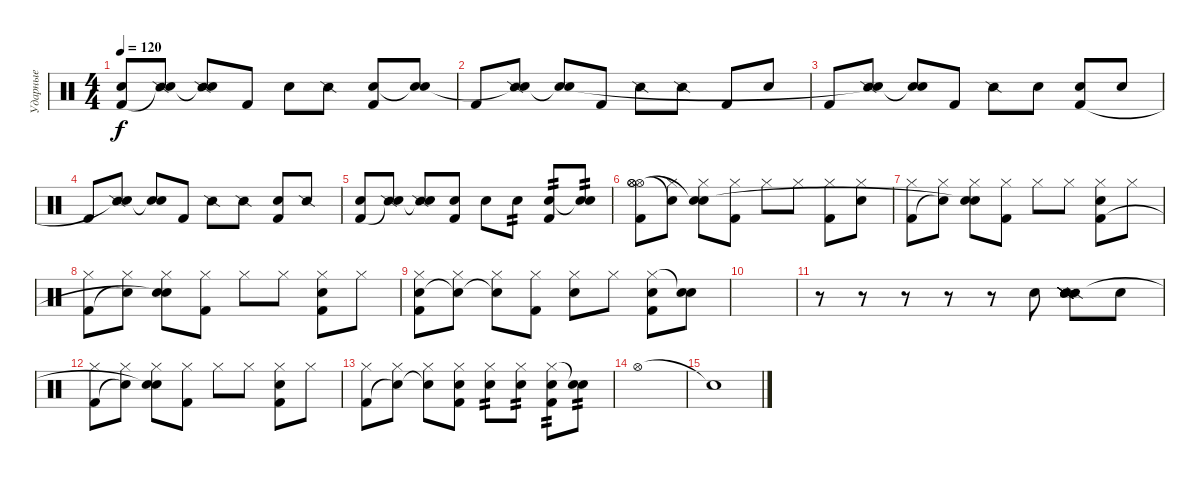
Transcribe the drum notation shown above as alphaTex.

\track ("Ударные" "Ударные") {instrument percussion}
\staff {score}
\articulation defaults
\ts (4 4)
\tempo 120
\clef neutral
\ks c
("Electric Snare (hit)" "Kick (hit) 2").8{dy f} ("Snare (side stick) 2" "Snare (hit)"{t}).8 ("Snare (side stick) 2" "Snare (hit)"{t}).8 "Kick (hit) 2".8 "Electric Snare (hit)".8 "Snare (side stick) 2".8 ("Electric Snare (hit)" "Kick (hit) 2").8 ("Snare (hit)"{t} "Electric Snare (hit)").8 |
"Kick (hit) 2".8 ("Snare (side stick) 2" "Snare (hit)"{t}).8 ("Electric Snare (hit)" "Snare (hit)"{t}).8 "Kick (hit) 2".8 "Snare (side stick) 2".8 "Snare (side stick) 2".8 "Kick (hit) 2".8 "Electric Snare (hit)".8 |
"Kick (hit) 2".8 ("Snare (side stick) 2" "Snare (hit)"{t}).8 ("Electric Snare (hit)" "Snare (hit)"{t}).8 "Kick (hit) 2".8 "Snare (side stick) 2".8 "Electric Snare (hit)".8 ("Electric Snare (hit)" "Kick (hit) 2").8 "Electric Snare (hit)".8 |
"Kick (hit) 2".8 ("Snare (side stick) 2" "Snare (hit)"{t}).8 ("Electric Snare (hit)" "Snare (hit)"{t}).8 "Kick (hit) 2".8 "Snare (side stick) 2".8 "Snare (side stick) 2".8 ("Electric Snare (hit)" "Kick (hit) 2").8 "Snare (side stick) 2".8 |
("Electric Snare (hit)" "Kick (hit) 2").8 ("Snare (side stick) 2" "Snare (hit)"{t}).8 ("Snare (side stick) 2" "Snare (hit)"{t}).8 ("Electric Snare (hit)" "Kick (hit) 2").8 "Electric Snare (hit)".8 "Electric Snare (hit)".8{tp 2} ("Electric Snare (hit)" "Kick (hit) 2").8{tp 2} ("Snare (hit)"{t} "Electric Snare (hit)").8{tp 2} |
("Hi-Hat (open)" "Hi-Hat (open)" "Hi-Hat (open)" "Kick (hit) 2").8 ("Hi-Hat (closed)" "Snare (hit)"{t}).8 ("Hi-Hat (closed)" "Electric Snare (hit)" "Snare (hit)"{t}).8 ("Hi-Hat (closed)" "Kick (hit) 2").8 "Hi-Hat (closed)".8 "Hi-Hat (closed)".8 ("Hi-Hat (closed)" "Kick (hit) 2").8 ("Hi-Hat (closed)" "Electric Snare (hit)").8 |
("Hi-Hat (closed)" "Kick (hit) 2").8 ("Hi-Hat (closed)" "Snare (hit)"{t}).8 ("Hi-Hat (closed)" "Electric Snare (hit)" "Snare (hit)"{t}).8 ("Hi-Hat (closed)" "Kick (hit) 2").8 "Hi-Hat (closed)".8 "Hi-Hat (closed)".8 ("Hi-Hat (closed)" "Electric Snare (hit)" "Kick (hit) 2").8 "Hi-Hat (closed)".8 |
("Hi-Hat (closed)" "Kick (hit) 2").8 ("Hi-Hat (closed)" "Snare (hit)"{t}).8 ("Hi-Hat (closed)" "Electric Snare (hit)" "Snare (hit)"{t}).8 ("Hi-Hat (closed)" "Kick (hit) 2").8 "Hi-Hat (closed)".8 "Hi-Hat (closed)".8 ("Hi-Hat (closed)" "Electric Snare (hit)" "Kick (hit) 2").8 "Hi-Hat (closed)".8 |
("Hi-Hat (closed)" "Electric Snare (hit)" "Kick (hit) 2").8 ("Hi-Hat (closed)" "Snare (hit)"{t}).8 ("Hi-Hat (closed)" "Snare (hit)"{t}).8 ("Hi-Hat (closed)" "Kick (hit) 2").8 ("Hi-Hat (closed)" "Electric Snare (hit)").8 "Hi-Hat (closed)".8 ("Hi-Hat (closed)" "Electric Snare (hit)" "Kick (hit) 2").8 ("Snare (hit)"{t} "Electric Snare (hit)").8 |
|
r.8 r.8 r.8 r.8 r.8 "Electric Snare (hit)".8 ("Snare (side stick) 2" "Snare (side stick) 2" "Snare (side stick) 2" "Snare (side stick) 2" "Snare (side stick) 2" "Snare (side stick) 2").8 "Electric Snare (hit)".8 |
("Hi-Hat (closed)" "Kick (hit) 2").8 ("Hi-Hat (closed)" "Snare (hit)"{t}).8 ("Hi-Hat (closed)" "Electric Snare (hit)" "Snare (hit)"{t}).8 ("Hi-Hat (closed)" "Kick (hit) 2").8 "Hi-Hat (closed)".8 "Hi-Hat (closed)".8 ("Hi-Hat (closed)" "Electric Snare (hit)" "Kick (hit) 2").8 "Hi-Hat (closed)".8 |
("Hi-Hat (closed)" "Kick (hit) 2").8 ("Hi-Hat (closed)" "Snare (hit)"{t}).8 ("Hi-Hat (closed)" "Snare (hit)"{t}).8 ("Hi-Hat (closed)" "Electric Snare (hit)" "Kick (hit) 2").8 ("Hi-Hat (closed)" "Electric Snare (hit)").8{tp 2} ("Hi-Hat (closed)" "Electric Snare (hit)").8{tp 2} ("Hi-Hat (closed)" "Electric Snare (hit)" "Kick (hit) 2").8{tp 2} ("Snare (hit)"{t} "Electric Snare (hit)").8{tp 2} |
"Hi-Hat (open)".1 |
"Snare (hit)"{t}.1
